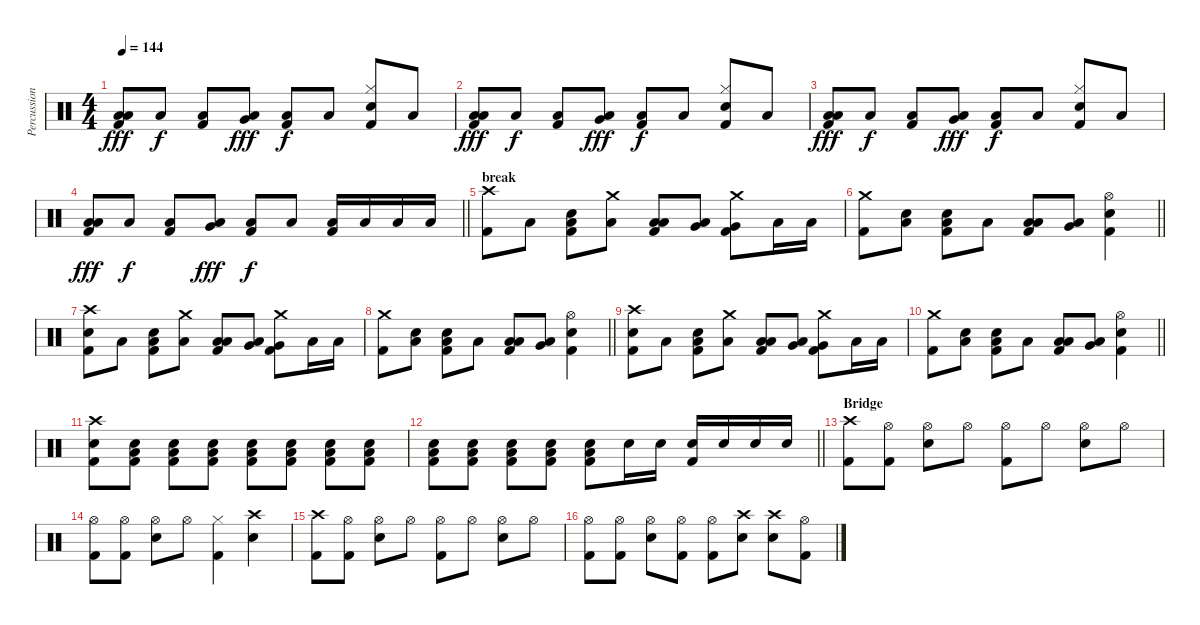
\track ("Percussion" "Percussion") {instrument percussion}
\staff {score}
\articulation defaults
\ts (4 4)
\tempo 144
\clef neutral
\ks c
("Low Tom (hit)" "Low Floor Tom (hit)" "Kick (hit) 2").8{dy fff} "Low Floor Tom (hit)".8{dy f} ("Low Floor Tom (hit)" "Kick (hit) 2").8 ("Very Low Tom (hit)" "Low Floor Tom (hit)").8{dy fff} ("Low Floor Tom (hit)" "Kick (hit) 2").8{dy f} "Low Floor Tom (hit)".8 ("Hi-Hat (closed)" "Electric Snare (hit)" "Kick (hit) 2").8 "Low Floor Tom (hit)".8 |
("Low Tom (hit)" "Low Floor Tom (hit)" "Kick (hit) 2").8{dy fff} "Low Floor Tom (hit)".8{dy f} ("Low Floor Tom (hit)" "Kick (hit) 2").8 ("Very Low Tom (hit)" "Low Floor Tom (hit)").8{dy fff} ("Low Floor Tom (hit)" "Kick (hit) 2").8{dy f} "Low Floor Tom (hit)".8 ("Hi-Hat (closed)" "Electric Snare (hit)" "Kick (hit) 2").8 "Low Floor Tom (hit)".8 |
("Low Tom (hit)" "Low Floor Tom (hit)" "Kick (hit) 2").8{dy fff} "Low Floor Tom (hit)".8{dy f} ("Low Floor Tom (hit)" "Kick (hit) 2").8 ("Very Low Tom (hit)" "Low Floor Tom (hit)").8{dy fff} ("Low Floor Tom (hit)" "Kick (hit) 2").8{dy f} "Low Floor Tom (hit)".8 ("Hi-Hat (closed)" "Electric Snare (hit)" "Kick (hit) 2").8 "Low Floor Tom (hit)".8 |
\barLineRight lightlight
("Low Tom (hit)" "Low Floor Tom (hit)" "Kick (hit) 2").8{dy fff} "Low Floor Tom (hit)".8{dy f} ("Low Floor Tom (hit)" "Kick (hit) 2").8 ("Very Low Tom (hit)" "Low Floor Tom (hit)").8{dy fff} ("Low Floor Tom (hit)" "Kick (hit) 2").8{dy f} "Low Floor Tom (hit)".8 ("Low Tom (hit)" "Kick (hit) 2").16 "Low Tom (hit)".16 "Low Tom (hit)".16 "Low Tom (hit)".16 |
\section ("" "break")
("Crash high (hit)" "Kick (hit) 2").8 "Low Floor Tom (hit)".8 ("Electric Snare (hit)" "Low Floor Tom (hit)" "Kick (hit) 2").8 ("Crash medium (hit)" "Low Tom (hit)").8 ("Low Tom (hit)" "Low Floor Tom (hit)" "Kick (hit) 2").8 ("Very Low Tom (hit)" "Low Floor Tom (hit)").8 ("Crash medium (hit)" "Very Low Tom (hit)" "Kick (hit) 2").8 "Low Floor Tom (hit)".16 "Low Floor Tom (hit)".16 |
\barLineRight lightlight
("Crash medium (hit)" "Kick (hit) 2").8 ("Electric Snare (hit)" "Low Floor Tom (hit)").8 ("Electric Snare (hit)" "Low Floor Tom (hit)" "Kick (hit) 2").8 "Low Floor Tom (hit)".8 ("Low Tom (hit)" "Low Floor Tom (hit)" "Kick (hit) 2").8 ("Very Low Tom (hit)" "Low Floor Tom (hit)").8 ("Hi-Hat (open)" "Electric Snare (hit)" "Kick (hit) 2").4 |
("Crash high (hit)" "Electric Snare (hit)" "Kick (hit) 2").8 "Low Floor Tom (hit)".8 ("Electric Snare (hit)" "Low Floor Tom (hit)" "Kick (hit) 2").8 ("Crash medium (hit)" "Low Tom (hit)").8 ("Low Tom (hit)" "Low Floor Tom (hit)" "Kick (hit) 2").8 ("Very Low Tom (hit)" "Low Floor Tom (hit)").8 ("Crash medium (hit)" "Very Low Tom (hit)" "Kick (hit) 2").8 "Low Floor Tom (hit)".16 "Low Floor Tom (hit)".16 |
\barLineRight lightlight
("Crash medium (hit)" "Kick (hit) 2").8 ("Electric Snare (hit)" "Low Floor Tom (hit)").8 ("Electric Snare (hit)" "Low Floor Tom (hit)" "Kick (hit) 2").8 "Low Floor Tom (hit)".8 ("Low Tom (hit)" "Low Floor Tom (hit)" "Kick (hit) 2").8 ("Very Low Tom (hit)" "Low Floor Tom (hit)").8 ("Hi-Hat (open)" "Electric Snare (hit)" "Kick (hit) 2").4 |
("Crash high (hit)" "Electric Snare (hit)" "Kick (hit) 2").8 "Low Floor Tom (hit)".8 ("Electric Snare (hit)" "Low Floor Tom (hit)" "Kick (hit) 2").8 ("Crash medium (hit)" "Low Tom (hit)").8 ("Low Tom (hit)" "Low Floor Tom (hit)" "Kick (hit) 2").8 ("Very Low Tom (hit)" "Low Floor Tom (hit)").8 ("Crash medium (hit)" "Very Low Tom (hit)" "Kick (hit) 2").8 "Low Floor Tom (hit)".16 "Low Floor Tom (hit)".16 |
\barLineRight lightlight
("Crash medium (hit)" "Kick (hit) 2").8 ("Electric Snare (hit)" "Low Floor Tom (hit)").8 ("Electric Snare (hit)" "Low Floor Tom (hit)" "Kick (hit) 2").8 "Low Floor Tom (hit)".8 ("Low Tom (hit)" "Low Floor Tom (hit)" "Kick (hit) 2").8 ("Very Low Tom (hit)" "Low Floor Tom (hit)").8 ("Hi-Hat (open)" "Electric Snare (hit)" "Kick (hit) 2").4 |
("Crash high (hit)" "Electric Snare (hit)" "Kick (hit) 2").8 ("Electric Snare (hit)" "Low Floor Tom (hit)" "Kick (hit) 2").8 ("Electric Snare (hit)" "Low Floor Tom (hit)" "Kick (hit) 2").8 ("Electric Snare (hit)" "Low Floor Tom (hit)" "Kick (hit) 2").8 ("Electric Snare (hit)" "Low Floor Tom (hit)" "Kick (hit) 2").8 ("Electric Snare (hit)" "Low Floor Tom (hit)" "Kick (hit) 2").8 ("Electric Snare (hit)" "Low Floor Tom (hit)" "Kick (hit) 2").8 ("Electric Snare (hit)" "Low Floor Tom (hit)" "Kick (hit) 2").8 |
\barLineRight lightlight
("Electric Snare (hit)" "Low Floor Tom (hit)" "Kick (hit) 2").8 ("Electric Snare (hit)" "Low Floor Tom (hit)" "Kick (hit) 2").8 ("Electric Snare (hit)" "Low Floor Tom (hit)" "Kick (hit) 2").8 ("Electric Snare (hit)" "Low Floor Tom (hit)" "Kick (hit) 2").8 ("Electric Snare (hit)" "Low Floor Tom (hit)" "Kick (hit) 2").8 "Electric Snare (hit)".16 "Electric Snare (hit)".16 ("Electric Snare (hit)" "Kick (hit) 2").16 "Electric Snare (hit)".16 "Electric Snare (hit)".16 "Electric Snare (hit)".16 |
\section ("" "Bridge")
("Crash high (hit)" "Kick (hit) 2").8 ("Hi-Hat (open)" "Kick (hit) 2").8 ("Hi-Hat (open)" "Electric Snare (hit)").8 "Hi-Hat (open)".8 ("Hi-Hat (open)" "Kick (hit) 2").8 "Hi-Hat (open)".8 ("Hi-Hat (open)" "Electric Snare (hit)").8 "Hi-Hat (open)".8 |
("Hi-Hat (open)" "Kick (hit) 2").8 ("Hi-Hat (open)" "Kick (hit) 2").8 ("Hi-Hat (open)" "Electric Snare (hit)").8 "Hi-Hat (open)".8 ("Hi-Hat (closed)" "Kick (hit) 2").4 ("Crash high (hit)" "Electric Snare (hit)").4 |
("Crash high (hit)" "Kick (hit) 2").8 ("Hi-Hat (open)" "Kick (hit) 2").8 ("Hi-Hat (open)" "Electric Snare (hit)").8 "Hi-Hat (open)".8 ("Hi-Hat (open)" "Kick (hit) 2").8 "Hi-Hat (open)".8 ("Hi-Hat (open)" "Electric Snare (hit)").8 "Hi-Hat (open)".8 |
("Hi-Hat (open)" "Kick (hit) 2").8 ("Hi-Hat (open)" "Kick (hit) 2").8 ("Hi-Hat (open)" "Electric Snare (hit)").8 ("Hi-Hat (open)" "Kick (hit) 2").8 ("Hi-Hat (open)" "Kick (hit) 2").8 ("Crash high (hit)" "Electric Snare (hit)").8 ("Crash high (hit)" "Electric Snare (hit)").8 ("Hi-Hat (open)" "Kick (hit) 2").8
